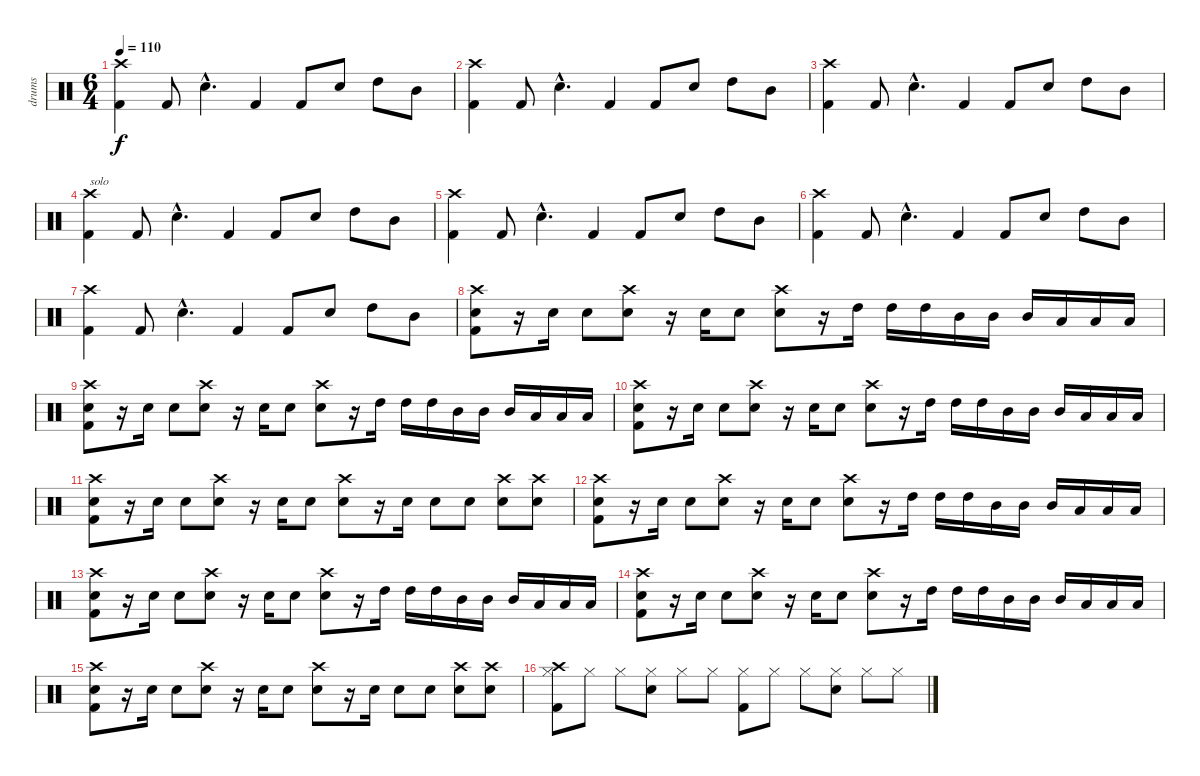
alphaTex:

\track ("drums" "drums") {instrument percussion}
\staff {score}
\articulation defaults
\ts (6 4)
\tempo 110
\clef neutral
\ks c
("Crash high (hit)" "Kick (hit) 2").4{dy f} "Kick (hit) 2".8 "Electric Snare (hit)"{hac}.4{d} "Kick (hit) 2".4 "Kick (hit) 2".8 "Electric Snare (hit)".8 "High Tom (hit)".8 "Mid Tom (hit)".8 |
("Crash high (hit)" "Kick (hit) 2").4 "Kick (hit) 2".8 "Electric Snare (hit)"{hac}.4{d} "Kick (hit) 2".4 "Kick (hit) 2".8 "Electric Snare (hit)".8 "High Tom (hit)".8 "Mid Tom (hit)".8 |
("Crash high (hit)" "Kick (hit) 2").4 "Kick (hit) 2".8 "Electric Snare (hit)"{hac}.4{d} "Kick (hit) 2".4 "Kick (hit) 2".8 "Electric Snare (hit)".8 "High Tom (hit)".8 "Mid Tom (hit)".8 |
("Crash high (hit)" "Kick (hit) 2").4{txt "solo "} "Kick (hit) 2".8 "Electric Snare (hit)"{hac}.4{d} "Kick (hit) 2".4 "Kick (hit) 2".8 "Electric Snare (hit)".8 "High Tom (hit)".8 "Mid Tom (hit)".8 |
("Crash high (hit)" "Kick (hit) 2").4 "Kick (hit) 2".8 "Electric Snare (hit)"{hac}.4{d} "Kick (hit) 2".4 "Kick (hit) 2".8 "Electric Snare (hit)".8 "High Tom (hit)".8 "Mid Tom (hit)".8 |
("Crash high (hit)" "Kick (hit) 2").4 "Kick (hit) 2".8 "Electric Snare (hit)"{hac}.4{d} "Kick (hit) 2".4 "Kick (hit) 2".8 "Electric Snare (hit)".8 "High Tom (hit)".8 "Mid Tom (hit)".8 |
("Crash high (hit)" "Kick (hit) 2").4 "Kick (hit) 2".8 "Electric Snare (hit)"{hac}.4{d} "Kick (hit) 2".4 "Kick (hit) 2".8 "Electric Snare (hit)".8 "High Tom (hit)".8 "Mid Tom (hit)".8 |
("Crash high (hit)" "Snare (hit) 2" "Kick (hit) 2").8 r.16 "Snare (hit) 2".16 "Snare (hit) 2".8 ("Crash high (hit)" "Snare (hit) 2").8 r.16 "Snare (hit) 2".16 "Snare (hit) 2".8 ("Crash high (hit)" "Snare (hit) 2").8 r.16 "High Tom (hit)".16 "High Tom (hit)".16 "High Tom (hit)".16 "Mid Tom (hit)".16 "Mid Tom (hit)".16 "Mid Tom (hit)".16 "Low Tom (hit)".16 "Low Tom (hit)".16 "Low Tom (hit)".16 |
("Crash high (hit)" "Snare (hit) 2" "Kick (hit) 2").8 r.16 "Snare (hit) 2".16 "Snare (hit) 2".8 ("Crash high (hit)" "Snare (hit) 2").8 r.16 "Snare (hit) 2".16 "Snare (hit) 2".8 ("Crash high (hit)" "Snare (hit) 2").8 r.16 "High Tom (hit)".16 "High Tom (hit)".16 "High Tom (hit)".16 "Mid Tom (hit)".16 "Mid Tom (hit)".16 "Mid Tom (hit)".16 "Low Tom (hit)".16 "Low Tom (hit)".16 "Low Tom (hit)".16 |
("Crash high (hit)" "Snare (hit) 2" "Kick (hit) 2").8 r.16 "Snare (hit) 2".16 "Snare (hit) 2".8 ("Crash high (hit)" "Snare (hit) 2").8 r.16 "Snare (hit) 2".16 "Snare (hit) 2".8 ("Crash high (hit)" "Snare (hit) 2").8 r.16 "High Tom (hit)".16 "High Tom (hit)".16 "High Tom (hit)".16 "Mid Tom (hit)".16 "Mid Tom (hit)".16 "Mid Tom (hit)".16 "Low Tom (hit)".16 "Low Tom (hit)".16 "Low Tom (hit)".16 |
("Crash high (hit)" "Snare (hit) 2" "Kick (hit) 2").8 r.16 "Snare (hit) 2".16 "Snare (hit) 2".8 ("Crash high (hit)" "Snare (hit) 2").8 r.16 "Snare (hit) 2".16 "Snare (hit) 2".8 ("Crash high (hit)" "Snare (hit) 2").8 r.16 "Snare (hit) 2".16 "Snare (hit) 2".8 "Snare (hit) 2".8 ("Crash high (hit)" "Snare (hit) 2").8 ("Crash high (hit)" "Snare (hit) 2").8 |
("Crash high (hit)" "Snare (hit) 2" "Kick (hit) 2").8 r.16 "Snare (hit) 2".16 "Snare (hit) 2".8 ("Crash high (hit)" "Snare (hit) 2").8 r.16 "Snare (hit) 2".16 "Snare (hit) 2".8 ("Crash high (hit)" "Snare (hit) 2").8 r.16 "High Tom (hit)".16 "High Tom (hit)".16 "High Tom (hit)".16 "Mid Tom (hit)".16 "Mid Tom (hit)".16 "Mid Tom (hit)".16 "Low Tom (hit)".16 "Low Tom (hit)".16 "Low Tom (hit)".16 |
("Crash high (hit)" "Snare (hit) 2" "Kick (hit) 2").8 r.16 "Snare (hit) 2".16 "Snare (hit) 2".8 ("Crash high (hit)" "Snare (hit) 2").8 r.16 "Snare (hit) 2".16 "Snare (hit) 2".8 ("Crash high (hit)" "Snare (hit) 2").8 r.16 "High Tom (hit)".16 "High Tom (hit)".16 "High Tom (hit)".16 "Mid Tom (hit)".16 "Mid Tom (hit)".16 "Mid Tom (hit)".16 "Low Tom (hit)".16 "Low Tom (hit)".16 "Low Tom (hit)".16 |
("Crash high (hit)" "Snare (hit) 2" "Kick (hit) 2").8 r.16 "Snare (hit) 2".16 "Snare (hit) 2".8 ("Crash high (hit)" "Snare (hit) 2").8 r.16 "Snare (hit) 2".16 "Snare (hit) 2".8 ("Crash high (hit)" "Snare (hit) 2").8 r.16 "High Tom (hit)".16 "High Tom (hit)".16 "High Tom (hit)".16 "Mid Tom (hit)".16 "Mid Tom (hit)".16 "Mid Tom (hit)".16 "Low Tom (hit)".16 "Low Tom (hit)".16 "Low Tom (hit)".16 |
("Crash high (hit)" "Snare (hit) 2" "Kick (hit) 2").8 r.16 "Snare (hit) 2".16 "Snare (hit) 2".8 ("Crash high (hit)" "Snare (hit) 2").8 r.16 "Snare (hit) 2".16 "Snare (hit) 2".8 ("Crash high (hit)" "Snare (hit) 2").8 r.16 "Snare (hit) 2".16 "Snare (hit) 2".8 "Snare (hit) 2".8 ("Crash high (hit)" "Snare (hit) 2").8 ("Crash high (hit)" "Snare (hit) 2").8 |
("Hi-Hat (closed)" "Kick (hit) 2" "Crash high (hit)").8 "Hi-Hat (closed)".8 "Hi-Hat (closed)".8 ("Hi-Hat (closed)" "Snare (hit) 2").8 "Hi-Hat (closed)".8 "Hi-Hat (closed)".8 ("Hi-Hat (closed)" "Kick (hit) 2").8 "Hi-Hat (closed)".8 "Hi-Hat (closed)".8 ("Hi-Hat (closed)" "Snare (hit) 2").8 "Hi-Hat (closed)".8 "Hi-Hat (closed)".8
